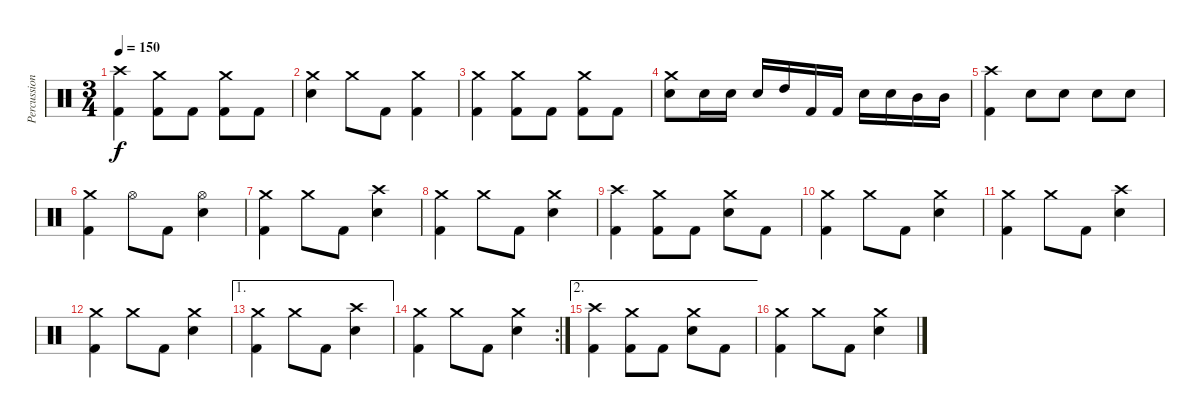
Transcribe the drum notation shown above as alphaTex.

\track ("Percussion" "Percussion") {instrument percussion}
\staff {score}
\articulation defaults
\ts (3 4)
\tempo 150
\clef neutral
\ks c
("Crash high (hit)" "Kick (hit) 2").4{dy f} ("Crash medium (hit)" "Kick (hit) 2").8 "Kick (hit) 2".8 ("Crash medium (hit)" "Kick (hit) 2").8 "Kick (hit) 2".8 |
("Crash medium (hit)" "Electric Snare (hit)").4 "Crash medium (hit)".8 "Kick (hit) 2".8 ("Crash medium (hit)" "Kick (hit) 2").4 |
("Crash medium (hit)" "Kick (hit) 2").4 ("Crash medium (hit)" "Kick (hit) 2").8 "Kick (hit) 2".8 ("Crash medium (hit)" "Kick (hit) 2").8 "Kick (hit) 2".8 |
("Crash medium (hit)" "Electric Snare (hit)").8 "Electric Snare (hit)".16 "Electric Snare (hit)".16 "Electric Snare (hit)".16 "High Tom (hit)".16 "Kick (hit) 2".16 "Kick (hit) 2".16 "Electric Snare (hit)".16 "Electric Snare (hit)".16 "Mid Tom (hit)".16 "Mid Tom (hit)".16 |
("Crash high (hit)" "Kick (hit) 2").4 "Electric Snare (hit)".8 "Electric Snare (hit)".8 "Electric Snare (hit)".8 "Electric Snare (hit)".8 |
("Crash medium (hit)" "Kick (hit) 2").4 "Hi-Hat (open)".8 "Kick (hit) 2".8 ("Hi-Hat (open)" "Electric Snare (hit)").4 |
("Crash medium (hit)" "Kick (hit) 2").4 "Crash medium (hit)".8 "Kick (hit) 2".8 ("Crash high (hit)" "Electric Snare (hit)").4 |
("Crash medium (hit)" "Kick (hit) 2").4 "Crash medium (hit)".8 "Kick (hit) 2".8 ("Crash medium (hit)" "Electric Snare (hit)").4 |
("Crash high (hit)" "Kick (hit) 2").4 ("Crash medium (hit)" "Kick (hit) 2").8 "Kick (hit) 2".8 ("Crash medium (hit)" "Electric Snare (hit)").8 "Kick (hit) 2".8 |
("Crash medium (hit)" "Kick (hit) 2").4 "Crash medium (hit)".8 "Kick (hit) 2".8 ("Crash medium (hit)" "Electric Snare (hit)").4 |
("Crash medium (hit)" "Kick (hit) 2").4 "Crash medium (hit)".8 "Kick (hit) 2".8 ("Crash high (hit)" "Electric Snare (hit)").4 |
("Crash medium (hit)" "Kick (hit) 2").4 "Crash medium (hit)".8 "Kick (hit) 2".8 ("Crash medium (hit)" "Electric Snare (hit)").4 |
\ae 1
("Crash medium (hit)" "Kick (hit) 2").4 "Crash medium (hit)".8 "Kick (hit) 2".8 ("Crash high (hit)" "Electric Snare (hit)").4 |
\rc 2
("Crash medium (hit)" "Kick (hit) 2").4 "Crash medium (hit)".8 "Kick (hit) 2".8 ("Crash medium (hit)" "Electric Snare (hit)").4 |
\ae 2
("Crash high (hit)" "Kick (hit) 2").4 ("Crash medium (hit)" "Kick (hit) 2").8 "Kick (hit) 2".8 ("Crash medium (hit)" "Electric Snare (hit)").8 "Kick (hit) 2".8 |
("Crash medium (hit)" "Kick (hit) 2").4 "Crash medium (hit)".8 "Kick (hit) 2".8 ("Crash medium (hit)" "Electric Snare (hit)").4
